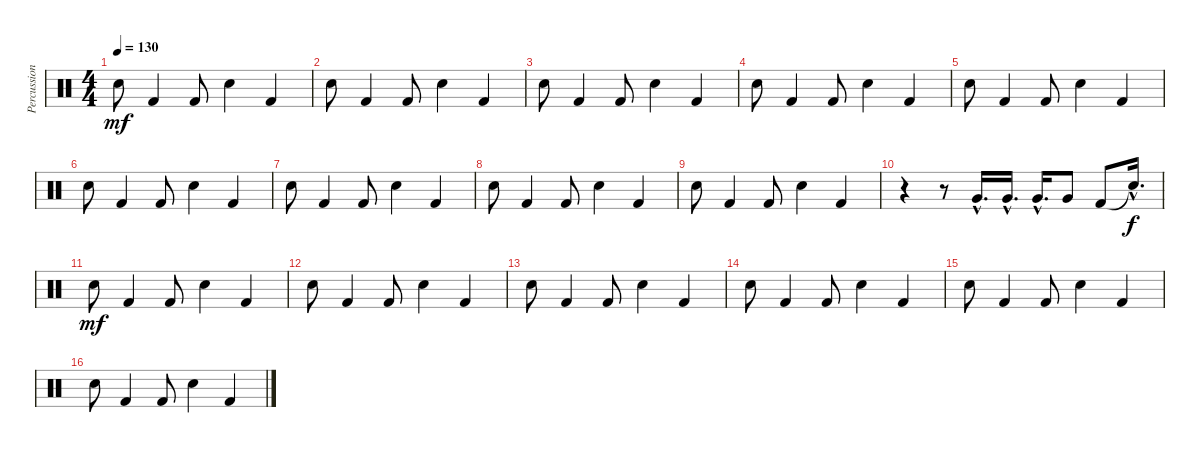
\track ("Percussion" "Percussion") {instrument percussion}
\staff {score}
\articulation defaults
\ts (4 4)
\tempo 130
\clef neutral
\ks c "Electric Snare (hit)".8{dy mf} "Kick (hit) 2".4 "Kick (hit) 2".8 "Electric Snare (hit)".4 "Kick (hit) 2".4
|
"Electric Snare (hit)".8 "Kick (hit) 2".4 "Kick (hit) 2".8 "Electric Snare (hit)".4 "Kick (hit) 2".4 |
"Electric Snare (hit)".8 "Kick (hit) 2".4 "Kick (hit) 2".8 "Electric Snare (hit)".4 "Kick (hit) 2".4 |
"Electric Snare (hit)".8 "Kick (hit) 2".4 "Kick (hit) 2".8 "Electric Snare (hit)".4 "Kick (hit) 2".4 |
"Electric Snare (hit)".8 "Kick (hit) 2".4 "Kick (hit) 2".8 "Electric Snare (hit)".4 "Kick (hit) 2".4 |
"Electric Snare (hit)".8 "Kick (hit) 2".4 "Kick (hit) 2".8 "Electric Snare (hit)".4 "Kick (hit) 2".4 |
"Electric Snare (hit)".8 "Kick (hit) 2".4 "Kick (hit) 2".8 "Electric Snare (hit)".4 "Kick (hit) 2".4 |
"Electric Snare (hit)".8 "Kick (hit) 2".4 "Kick (hit) 2".8 "Electric Snare (hit)".4 "Kick (hit) 2".4 |
"Electric Snare (hit)".8 "Kick (hit) 2".4 "Kick (hit) 2".8 "Electric Snare (hit)".4 "Kick (hit) 2".4 |
r.4 r.8 "Very Low Tom (hit)"{hac}.16{d} "Very Low Tom (hit)"{hac}.16{d} "Very Low Tom (hit)"{hac}.16{d} "Very Low Tom (hit)".8 "Kick (hit) 2".8 "Snare (hit)"{hac t}.16{d dy f} |
"Electric Snare (hit)".8{dy mf} "Kick (hit) 2".4 "Kick (hit) 2".8 "Electric Snare (hit)".4 "Kick (hit) 2".4 |
"Electric Snare (hit)".8 "Kick (hit) 2".4 "Kick (hit) 2".8 "Electric Snare (hit)".4 "Kick (hit) 2".4 |
"Electric Snare (hit)".8 "Kick (hit) 2".4 "Kick (hit) 2".8 "Electric Snare (hit)".4 "Kick (hit) 2".4 |
"Electric Snare (hit)".8 "Kick (hit) 2".4 "Kick (hit) 2".8 "Electric Snare (hit)".4 "Kick (hit) 2".4 |
"Electric Snare (hit)".8 "Kick (hit) 2".4 "Kick (hit) 2".8 "Electric Snare (hit)".4 "Kick (hit) 2".4 |
"Electric Snare (hit)".8 "Kick (hit) 2".4 "Kick (hit) 2".8 "Electric Snare (hit)".4 "Kick (hit) 2".4
